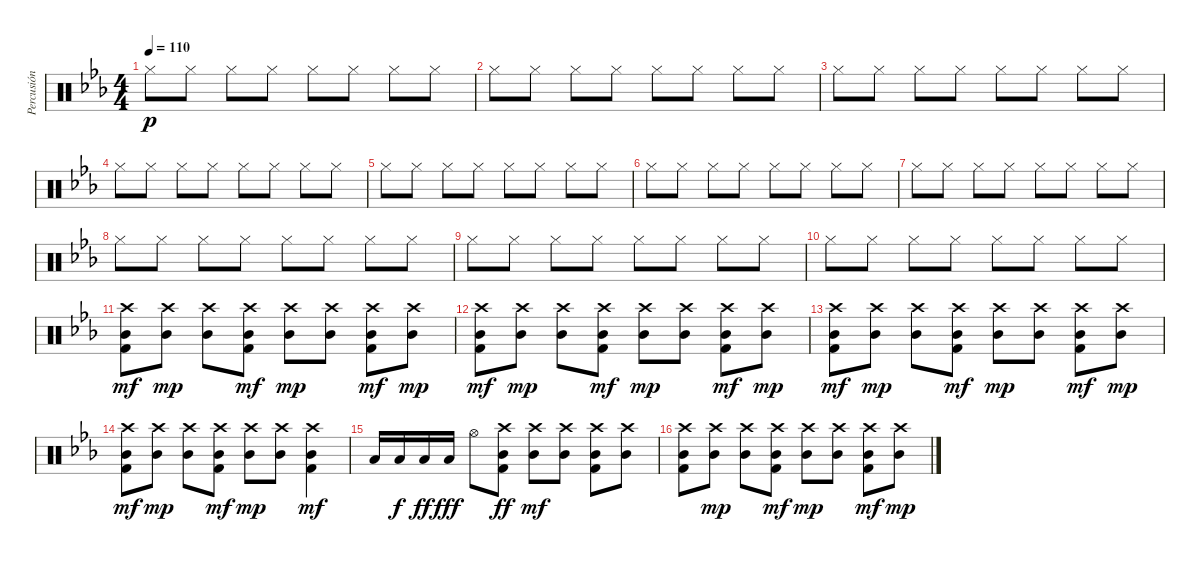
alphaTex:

\track ("Percusión" "Percusión") {instrument percussion}
\staff {score}
\articulation defaults
\ts (4 4)
\tempo 110
\clef neutral
\ks eb "Hi-Hat (closed)".8{dy p} "Hi-Hat (closed)".8 "Hi-Hat (closed)".8 "Hi-Hat (closed)".8 "Hi-Hat (closed)".8 "Hi-Hat (closed)".8 "Hi-Hat (closed)".8 "Hi-Hat (closed)".8
|
"Hi-Hat (closed)".8 "Hi-Hat (closed)".8 "Hi-Hat (closed)".8 "Hi-Hat (closed)".8 "Hi-Hat (closed)".8 "Hi-Hat (closed)".8 "Hi-Hat (closed)".8 "Hi-Hat (closed)".8 |
"Hi-Hat (closed)".8 "Hi-Hat (closed)".8 "Hi-Hat (closed)".8 "Hi-Hat (closed)".8 "Hi-Hat (closed)".8 "Hi-Hat (closed)".8 "Hi-Hat (closed)".8 "Hi-Hat (closed)".8 |
"Hi-Hat (closed)".8 "Hi-Hat (closed)".8 "Hi-Hat (closed)".8 "Hi-Hat (closed)".8 "Hi-Hat (closed)".8 "Hi-Hat (closed)".8 "Hi-Hat (closed)".8 "Hi-Hat (closed)".8 |
"Hi-Hat (closed)".8 "Hi-Hat (closed)".8 "Hi-Hat (closed)".8 "Hi-Hat (closed)".8 "Hi-Hat (closed)".8 "Hi-Hat (closed)".8 "Hi-Hat (closed)".8 "Hi-Hat (closed)".8 |
"Hi-Hat (closed)".8 "Hi-Hat (closed)".8 "Hi-Hat (closed)".8 "Hi-Hat (closed)".8 "Hi-Hat (closed)".8 "Hi-Hat (closed)".8 "Hi-Hat (closed)".8 "Hi-Hat (closed)".8 |
"Hi-Hat (closed)".8 "Hi-Hat (closed)".8 "Hi-Hat (closed)".8 "Hi-Hat (closed)".8 "Hi-Hat (closed)".8 "Hi-Hat (closed)".8 "Hi-Hat (closed)".8 "Hi-Hat (closed)".8 |
"Hi-Hat (closed)".8 "Hi-Hat (closed)".8 "Hi-Hat (closed)".8 "Hi-Hat (closed)".8 "Hi-Hat (closed)".8 "Hi-Hat (closed)".8 "Hi-Hat (closed)".8 "Hi-Hat (closed)".8 |
"Hi-Hat (closed)".8 "Hi-Hat (closed)".8 "Hi-Hat (closed)".8 "Hi-Hat (closed)".8 "Hi-Hat (closed)".8 "Hi-Hat (closed)".8 "Hi-Hat (closed)".8 "Hi-Hat (closed)".8 |
"Hi-Hat (closed)".8 "Hi-Hat (closed)".8 "Hi-Hat (closed)".8 "Hi-Hat (closed)".8 "Hi-Hat (closed)".8 "Hi-Hat (closed)".8 "Hi-Hat (closed)".8 "Hi-Hat (closed)".8 |
("Kick (hit) 2" "Mid Tom (hit)" "Crash high (hit)").8{dy mf} ("Mid Tom (hit)" "Crash high (hit)").8{dy mp} ("Mid Tom (hit)" "Crash high (hit)").8 ("Kick (hit) 2" "Mid Tom (hit)" "Crash high (hit)").8{dy mf} ("Mid Tom (hit)" "Crash high (hit)").8{dy mp} ("Mid Tom (hit)" "Crash high (hit)").8 ("Kick (hit) 2" "Mid Tom (hit)" "Crash high (hit)").8{dy mf} ("Mid Tom (hit)" "Crash high (hit)").8{dy mp} |
("Kick (hit) 2" "Mid Tom (hit)" "Crash high (hit)").8{dy mf} ("Mid Tom (hit)" "Crash high (hit)").8{dy mp} ("Mid Tom (hit)" "Crash high (hit)").8 ("Kick (hit) 2" "Mid Tom (hit)" "Crash high (hit)").8{dy mf} ("Mid Tom (hit)" "Crash high (hit)").8{dy mp} ("Mid Tom (hit)" "Crash high (hit)").8 ("Kick (hit) 2" "Mid Tom (hit)" "Crash high (hit)").8{dy mf} ("Mid Tom (hit)" "Crash high (hit)").8{dy mp} |
("Kick (hit) 2" "Mid Tom (hit)" "Crash high (hit)").8{dy mf} ("Mid Tom (hit)" "Crash high (hit)").8{dy mp} ("Mid Tom (hit)" "Crash high (hit)").8 ("Kick (hit) 2" "Mid Tom (hit)" "Crash high (hit)").8{dy mf} ("Mid Tom (hit)" "Crash high (hit)").8{dy mp} ("Mid Tom (hit)" "Crash high (hit)").8 ("Kick (hit) 2" "Mid Tom (hit)" "Crash high (hit)").8{dy mf} ("Mid Tom (hit)" "Crash high (hit)").8{dy mp} |
("Kick (hit) 2" "Mid Tom (hit)" "Crash high (hit)").8{dy mf} ("Mid Tom (hit)" "Crash high (hit)").8{dy mp} ("Mid Tom (hit)" "Crash high (hit)").8 ("Kick (hit) 2" "Mid Tom (hit)" "Crash high (hit)").8{dy mf} ("Mid Tom (hit)" "Crash high (hit)").8{dy mp} ("Mid Tom (hit)" "Crash high (hit)").8 ("Kick (hit) 2" "Mid Tom (hit)" "Crash high (hit)").4{dy mf} |
"Low Tom (hit)".16 "Low Tom (hit)".16{dy f} "Low Tom (hit)".16{dy ff} "Low Tom (hit)".16{dy fff} "Hi-Hat (open)".8 ("Kick (hit) 2" "Mid Tom (hit)" "Crash high (hit)").8{dy ff} ("Mid Tom (hit)" "Crash high (hit)").8{dy mf} ("Mid Tom (hit)" "Crash high (hit)").8 ("Kick (hit) 2" "Mid Tom (hit)" "Crash high (hit)").8 ("Mid Tom (hit)" "Crash high (hit)").8 |
("Kick (hit) 2" "Mid Tom (hit)" "Crash high (hit)").8 ("Mid Tom (hit)" "Crash high (hit)").8{dy mp} ("Mid Tom (hit)" "Crash high (hit)").8 ("Kick (hit) 2" "Mid Tom (hit)" "Crash high (hit)").8{dy mf} ("Mid Tom (hit)" "Crash high (hit)").8{dy mp} ("Mid Tom (hit)" "Crash high (hit)").8 ("Kick (hit) 2" "Mid Tom (hit)" "Crash high (hit)").8{dy mf} ("Mid Tom (hit)" "Crash high (hit)").8{dy mp}
